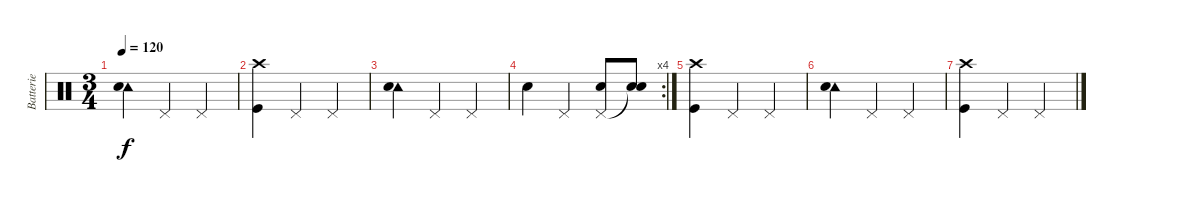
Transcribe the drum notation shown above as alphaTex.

\track ("Batterie" "Batterie") {instrument percussion}
\staff {score}
\articulation defaults
\ts (3 4)
\tempo 120
\clef neutral
\ks c
("Tambourine (hit)" "Snare (hit) 2").4{dy f} "Pedal Hi-Hat (hit)".4 "Pedal Hi-Hat (hit)".4 |
("Crash high (hit)" "Kick (hit)").4 "Pedal Hi-Hat (hit)".4 "Pedal Hi-Hat (hit)".4 |
("Tambourine (hit)" "Snare (hit) 2").4 "Pedal Hi-Hat (hit)".4 "Pedal Hi-Hat (hit)".4 |
\rc 4 "Snare (hit) 2".4 "Pedal Hi-Hat (hit)".4
("Pedal Hi-Hat (hit)" "Snare (hit) 2").8 ("Snare (hit)"{t} "Snare (hit) 2").8 |
("Crash high (hit)" "Kick (hit)").4 "Pedal Hi-Hat (hit)".4 "Pedal Hi-Hat (hit)".4 |
("Tambourine (hit)" "Snare (hit) 2").4{volume 0} "Pedal Hi-Hat (hit)".4 "Pedal Hi-Hat (hit)".4 |
("Crash high (hit)" "Kick (hit)").4 "Pedal Hi-Hat (hit)".4 "Pedal Hi-Hat (hit)".4
